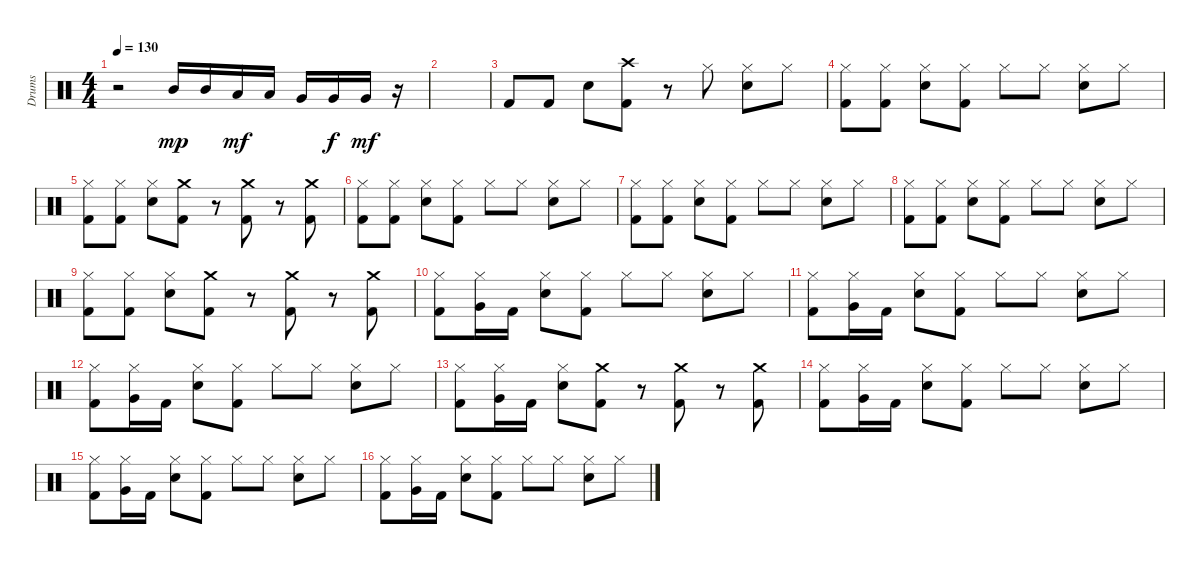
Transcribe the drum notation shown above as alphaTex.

\track ("Drums" "Drums") {instrument percussion}
\staff {score}
\articulation defaults
\ts (4 4)
\tempo 130
\clef neutral
\ks c
r.2{dy f} "Mid Tom (hit)".16{dy mp} "Mid Tom (hit)".16 "Low Tom (hit)".16{dy mf} "Low Tom (hit)".16 "Very Low Tom (hit)".16 "Very Low Tom (hit)".16{dy f} "Very Low Tom (hit)".16{dy mf} r.16 |
|
"Kick (hit) 2".8 "Kick (hit) 2".8 "Snare (hit) 2".8 ("Crash high (hit)" "Kick (hit) 2").8 r.8 "Hi-Hat (closed)".8 ("Hi-Hat (closed)" "Snare (hit) 2").8 "Hi-Hat (closed)".8 |
("Hi-Hat (closed)" "Kick (hit) 2").8 ("Hi-Hat (closed)" "Kick (hit) 2").8 ("Hi-Hat (closed)" "Snare (hit) 2").8 ("Hi-Hat (closed)" "Kick (hit) 2").8 "Hi-Hat (closed)".8 "Hi-Hat (closed)".8 ("Hi-Hat (closed)" "Snare (hit) 2").8 "Hi-Hat (closed)".8 |
("Hi-Hat (closed)" "Kick (hit) 2").8 ("Hi-Hat (closed)" "Kick (hit) 2").8 ("Hi-Hat (closed)" "Snare (hit) 2").8 ("Crash medium (hit)" "Kick (hit) 2").8 r.8 ("Crash medium (hit)" "Kick (hit) 2").8 r.8 ("Crash medium (hit)" "Kick (hit) 2").8 |
("Hi-Hat (closed)" "Kick (hit) 2").8 ("Hi-Hat (closed)" "Kick (hit) 2").8 ("Hi-Hat (closed)" "Snare (hit) 2").8 ("Hi-Hat (closed)" "Kick (hit) 2").8 "Hi-Hat (closed)".8 "Hi-Hat (closed)".8 ("Hi-Hat (closed)" "Snare (hit) 2").8 "Hi-Hat (closed)".8 |
("Hi-Hat (closed)" "Kick (hit) 2").8 ("Hi-Hat (closed)" "Kick (hit) 2").8 ("Hi-Hat (closed)" "Snare (hit) 2").8 ("Hi-Hat (closed)" "Kick (hit) 2").8 "Hi-Hat (closed)".8 "Hi-Hat (closed)".8 ("Hi-Hat (closed)" "Snare (hit) 2").8 "Hi-Hat (closed)".8 |
("Hi-Hat (closed)" "Kick (hit) 2").8 ("Hi-Hat (closed)" "Kick (hit) 2").8 ("Hi-Hat (closed)" "Snare (hit) 2").8 ("Hi-Hat (closed)" "Kick (hit) 2").8 "Hi-Hat (closed)".8 "Hi-Hat (closed)".8 ("Hi-Hat (closed)" "Snare (hit) 2").8 "Hi-Hat (closed)".8 |
("Hi-Hat (closed)" "Kick (hit) 2").8 ("Hi-Hat (closed)" "Kick (hit) 2").8 ("Hi-Hat (closed)" "Snare (hit) 2").8 ("Crash medium (hit)" "Kick (hit) 2").8 r.8 ("Crash medium (hit)" "Kick (hit) 2").8 r.8 ("Crash medium (hit)" "Kick (hit) 2").8 |
("Hi-Hat (closed)" "Kick (hit) 2").8 ("Hi-Hat (closed)" "Very Low Tom (hit)").16 "Kick (hit) 2".16 ("Hi-Hat (closed)" "Snare (hit) 2").8 ("Hi-Hat (closed)" "Kick (hit) 2").8 "Hi-Hat (closed)".8 "Hi-Hat (closed)".8 ("Hi-Hat (closed)" "Snare (hit) 2").8 "Hi-Hat (closed)".8 |
("Hi-Hat (closed)" "Kick (hit) 2").8 ("Hi-Hat (closed)" "Very Low Tom (hit)").16 "Kick (hit) 2".16 ("Hi-Hat (closed)" "Snare (hit) 2").8 ("Hi-Hat (closed)" "Kick (hit) 2").8 "Hi-Hat (closed)".8 "Hi-Hat (closed)".8 ("Hi-Hat (closed)" "Snare (hit) 2").8 "Hi-Hat (closed)".8 |
("Hi-Hat (closed)" "Kick (hit) 2").8 ("Hi-Hat (closed)" "Very Low Tom (hit)").16 "Kick (hit) 2".16 ("Hi-Hat (closed)" "Snare (hit) 2").8 ("Hi-Hat (closed)" "Kick (hit) 2").8 "Hi-Hat (closed)".8 "Hi-Hat (closed)".8 ("Hi-Hat (closed)" "Snare (hit) 2").8 "Hi-Hat (closed)".8 |
("Hi-Hat (closed)" "Kick (hit) 2").8 ("Hi-Hat (closed)" "Very Low Tom (hit)").16 "Kick (hit) 2".16 ("Hi-Hat (closed)" "Snare (hit) 2").8 ("Crash medium (hit)" "Kick (hit) 2").8 r.8 ("Crash medium (hit)" "Kick (hit) 2").8 r.8 ("Crash medium (hit)" "Kick (hit) 2").8 |
("Hi-Hat (closed)" "Kick (hit) 2").8 ("Hi-Hat (closed)" "Very Low Tom (hit)").16 "Kick (hit) 2".16 ("Hi-Hat (closed)" "Snare (hit) 2").8 ("Hi-Hat (closed)" "Kick (hit) 2").8 "Hi-Hat (closed)".8 "Hi-Hat (closed)".8 ("Hi-Hat (closed)" "Snare (hit) 2").8 "Hi-Hat (closed)".8 |
("Hi-Hat (closed)" "Kick (hit) 2").8 ("Hi-Hat (closed)" "Very Low Tom (hit)").16 "Kick (hit) 2".16 ("Hi-Hat (closed)" "Snare (hit) 2").8 ("Hi-Hat (closed)" "Kick (hit) 2").8 "Hi-Hat (closed)".8 "Hi-Hat (closed)".8 ("Hi-Hat (closed)" "Snare (hit) 2").8 "Hi-Hat (closed)".8 |
("Hi-Hat (closed)" "Kick (hit) 2").8 ("Hi-Hat (closed)" "Very Low Tom (hit)").16 "Kick (hit) 2".16 ("Hi-Hat (closed)" "Snare (hit) 2").8 ("Hi-Hat (closed)" "Kick (hit) 2").8 "Hi-Hat (closed)".8 "Hi-Hat (closed)".8 ("Hi-Hat (closed)" "Snare (hit) 2").8 "Hi-Hat (closed)".8
